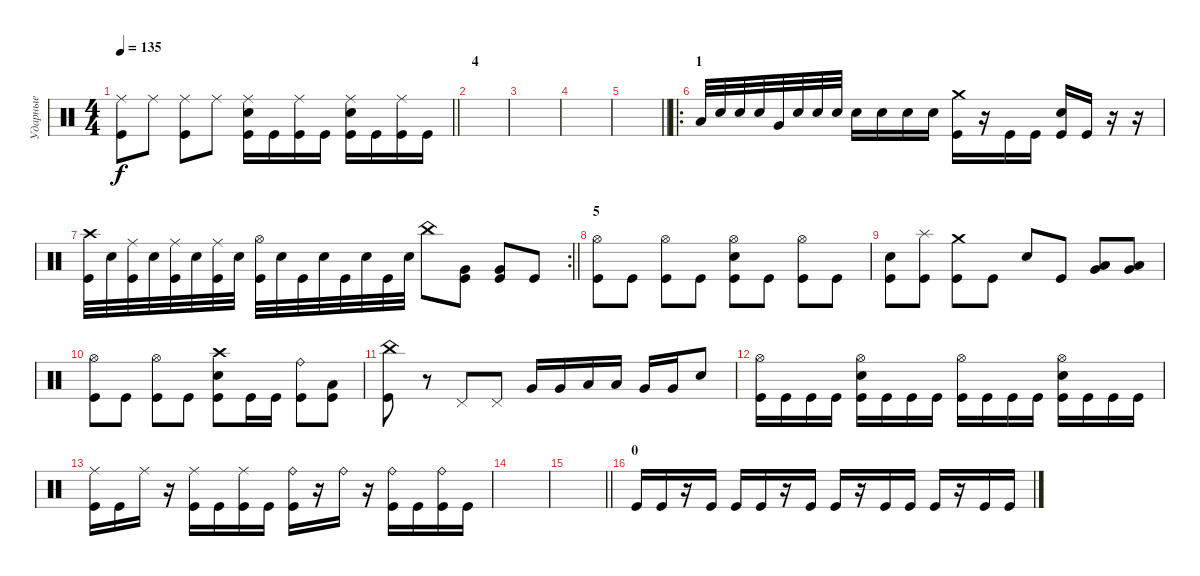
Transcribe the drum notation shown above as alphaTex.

\track ("Ударные" "Ударные") {instrument percussion}
\staff {score}
\articulation defaults
\ts (4 4)
\tempo 135
\clef neutral
\barLineRight lightlight
\ks c
("Ride (middle)" "Kick (hit)").8{dy f} "Ride (middle)".8 ("Ride (middle)" "Kick (hit)").8 "Ride (middle)".8 ("Ride (middle)" "Electric Snare (hit)" "Kick (hit)").16 "Kick (hit)".16 ("Ride (middle)" "Kick (hit)").16 "Kick (hit)".16 ("Ride (middle)" "Electric Snare (hit)" "Kick (hit)").16 "Kick (hit)".16 ("Ride (middle)" "Kick (hit)").16 "Kick (hit)".16 |
\section ("" "4")
|
|
|
\barLineRight lightlight
|
\ro
\section ("" "1")
"Low Tom (hit)".32 "Electric Snare (hit)".32 "Electric Snare (hit)".32 "Electric Snare (hit)".32 "Very Low Tom (hit)".32 "Electric Snare (hit)".32 "Electric Snare (hit)".32 "Electric Snare (hit)".32 "Electric Snare (hit)".16 "Electric Snare (hit)".16 "Electric Snare (hit)".16 "Electric Snare (hit)".16 ("Crash medium (hit)" "Kick (hit)").16 r.16 "Kick (hit)".16 "Kick (hit)".16 ("Electric Snare (hit)" "Kick (hit)").16 "Kick (hit)".16 r.16 r.16 |
\rc 2
\barLineRight lightlight
("Crash high (hit)" "Kick (hit)").32 "Electric Snare (hit)".32 ("Ride (middle)" "Kick (hit)").32 "Electric Snare (hit)".32 ("Ride (middle)" "Kick (hit)").32 "Electric Snare (hit)".32 ("Ride (middle)" "Kick (hit)").32 "Electric Snare (hit)".32 ("Hi-Hat (open)" "Kick (hit)").32 "Electric Snare (hit)".32 "Kick (hit)".32 "Electric Snare (hit)".32 "Kick (hit)".32 "Electric Snare (hit)".32 "Kick (hit)".32 "Electric Snare (hit)".32 "China (hit)".8 ("Very Low Tom (hit)" "Kick (hit)").8 ("Very Low Tom (hit)" "Kick (hit)").8 "Kick (hit)".8 |
\section ("" "5")
("Hi-Hat (open)" "Kick (hit)").8 "Kick (hit)".8 ("Hi-Hat (open)" "Kick (hit)").8 "Kick (hit)".8 ("Hi-Hat (open)" "Electric Snare (hit)" "Kick (hit)").8 "Kick (hit)".8 ("Hi-Hat (open)" "Kick (hit)").8 "Kick (hit)".8 |
("Electric Snare (hit)" "Kick (hit)").8 ("Splash (hit)" "Kick (hit)").8 ("Crash medium (hit)" "Kick (hit)").8 "Kick (hit)".8 "Electric Snare (hit)".8 "Kick (hit)".8 ("Very Low Tom (hit)" "Low Floor Tom (hit)").8 ("Very Low Tom (hit)" "Low Floor Tom (hit)").8 |
("Hi-Hat (open)" "Kick (hit)").8 "Kick (hit)".8 ("Hi-Hat (open)" "Kick (hit)").8 "Kick (hit)".8 ("Crash high (hit)" "Electric Snare (hit)" "Kick (hit)").8 "Kick (hit)".16 "Kick (hit)".16 ("Ride (bell)" "Kick (hit)").8 ("Low Tom (hit)" "Kick (hit)").8 |
("China (hit)" "Kick (hit)").8 r.8 "Pedal Hi-Hat (hit)".8 "Pedal Hi-Hat (hit)".8 "Very Low Tom (hit)".16 "Very Low Tom (hit)".16 "Low Tom (hit)".16 "Low Tom (hit)".16 "Very Low Tom (hit)".16 "Very Low Tom (hit)".16 "Electric Snare (hit)".8 |
("Hi-Hat (open)" "Kick (hit)").16 "Kick (hit)".16 "Kick (hit)".16 "Kick (hit)".16 ("Hi-Hat (open)" "Electric Snare (hit)" "Kick (hit)").16 "Kick (hit)".16 "Kick (hit)".16 "Kick (hit)".16 ("Hi-Hat (open)" "Kick (hit)").16 "Kick (hit)".16 "Kick (hit)".16 "Kick (hit)".16 ("Hi-Hat (open)" "Electric Snare (hit)" "Kick (hit)").16 "Kick (hit)".16 "Kick (hit)".16 "Kick (hit)".16 |
("Ride (middle)" "Kick (hit)").16 "Kick (hit)".16 "Ride (middle)".16 r.16 ("Ride (middle)" "Kick (hit)").16 "Kick (hit)".16 ("Ride (middle)" "Kick (hit)").16 "Kick (hit)".16 ("Ride (bell)" "Kick (hit)").16 r.16 "Ride (bell)".16 r.16 ("Ride (bell)" "Kick (hit)").16 "Kick (hit)".16 ("Ride (bell)" "Kick (hit)").16 "Kick (hit)".16 |
|
\barLineRight lightlight
|
\section ("" "0")
"Kick (hit)".16 "Kick (hit)".16 r.16 "Kick (hit)".16 "Kick (hit)".16 "Kick (hit)".16 r.16 "Kick (hit)".16 "Kick (hit)".16 r.16 "Kick (hit)".16 "Kick (hit)".16 "Kick (hit)".16 r.16 "Kick (hit)".16 "Kick (hit)".16
